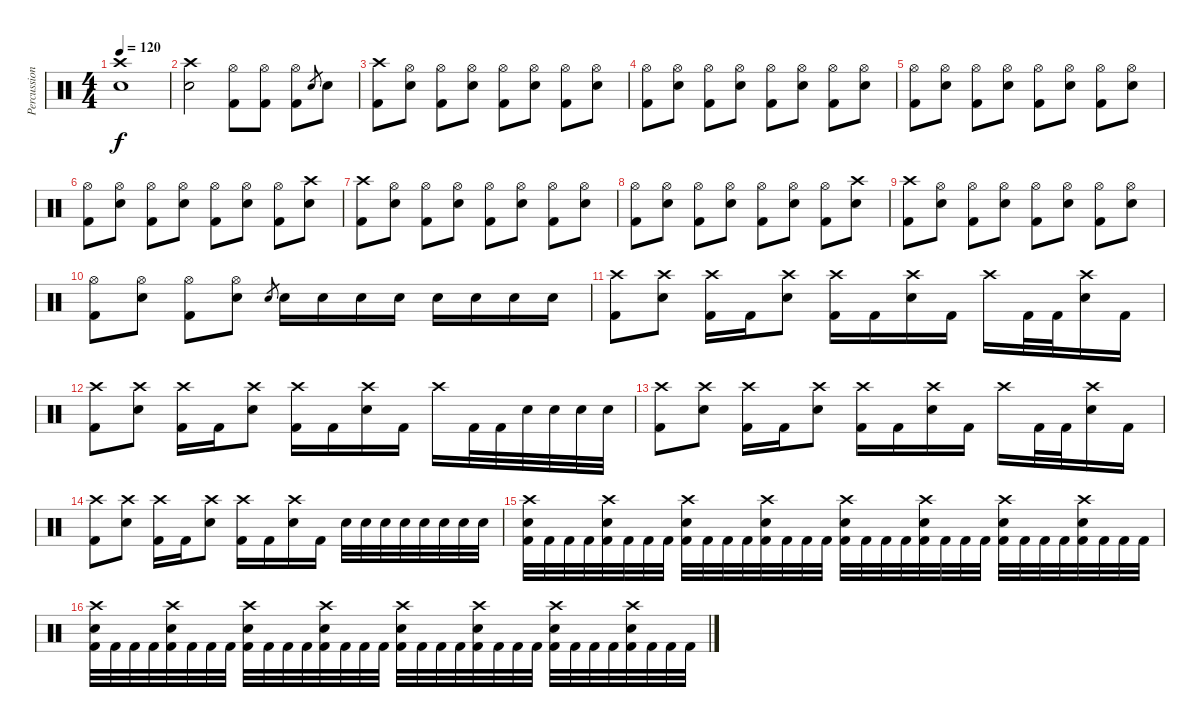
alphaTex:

\track ("Percussions" "Percussion") {instrument percussion}
\staff {score}
\articulation defaults
\ts (4 4)
\tempo 120
\clef neutral
\ks c
("Crash high (hit)" "Snare (hit) 2").1{dy f} |
("Crash high (hit)" "Snare (hit) 2").2 ("Hi-Hat (open)" "Kick (hit) 2").8 ("Hi-Hat (open)" "Kick (hit) 2").8 ("Hi-Hat (open)" "Kick (hit) 2").8 "Snare (hit) 2".8{gr} "Snare (hit) 2".8 |
("Crash high (hit)" "Kick (hit) 2").8 ("Hi-Hat (open)" "Snare (hit) 2").8 ("Hi-Hat (open)" "Kick (hit) 2").8 ("Hi-Hat (open)" "Snare (hit) 2").8 ("Hi-Hat (open)" "Kick (hit) 2").8 ("Hi-Hat (open)" "Snare (hit) 2").8 ("Hi-Hat (open)" "Kick (hit) 2").8 ("Hi-Hat (open)" "Snare (hit) 2").8 |
("Hi-Hat (open)" "Kick (hit) 2").8 ("Hi-Hat (open)" "Snare (hit) 2").8 ("Hi-Hat (open)" "Kick (hit) 2").8 ("Hi-Hat (open)" "Snare (hit) 2").8 ("Hi-Hat (open)" "Kick (hit) 2").8 ("Hi-Hat (open)" "Snare (hit) 2").8 ("Hi-Hat (open)" "Kick (hit) 2").8 ("Hi-Hat (open)" "Snare (hit) 2").8 |
("Hi-Hat (open)" "Kick (hit) 2").8 ("Hi-Hat (open)" "Snare (hit) 2").8 ("Hi-Hat (open)" "Kick (hit) 2").8 ("Hi-Hat (open)" "Snare (hit) 2").8 ("Hi-Hat (open)" "Kick (hit) 2").8 ("Hi-Hat (open)" "Snare (hit) 2").8 ("Hi-Hat (open)" "Kick (hit) 2").8 ("Hi-Hat (open)" "Snare (hit) 2").8 |
("Hi-Hat (open)" "Kick (hit) 2").8 ("Hi-Hat (open)" "Snare (hit) 2").8 ("Hi-Hat (open)" "Kick (hit) 2").8 ("Hi-Hat (open)" "Snare (hit) 2").8 ("Hi-Hat (open)" "Kick (hit) 2").8 ("Hi-Hat (open)" "Snare (hit) 2").8 ("Hi-Hat (open)" "Kick (hit) 2").8 ("Crash high (hit)" "Snare (hit) 2").8 |
("Crash high (hit)" "Kick (hit) 2").8 ("Hi-Hat (open)" "Snare (hit) 2").8 ("Hi-Hat (open)" "Kick (hit) 2").8 ("Hi-Hat (open)" "Snare (hit) 2").8 ("Hi-Hat (open)" "Kick (hit) 2").8 ("Hi-Hat (open)" "Snare (hit) 2").8 ("Hi-Hat (open)" "Kick (hit) 2").8 ("Hi-Hat (open)" "Snare (hit) 2").8 |
("Hi-Hat (open)" "Kick (hit) 2").8 ("Hi-Hat (open)" "Snare (hit) 2").8 ("Hi-Hat (open)" "Kick (hit) 2").8 ("Hi-Hat (open)" "Snare (hit) 2").8 ("Hi-Hat (open)" "Kick (hit) 2").8 ("Hi-Hat (open)" "Snare (hit) 2").8 ("Hi-Hat (open)" "Kick (hit) 2").8 ("Crash high (hit)" "Snare (hit) 2").8 |
("Crash high (hit)" "Kick (hit) 2").8 ("Hi-Hat (open)" "Snare (hit) 2").8 ("Hi-Hat (open)" "Kick (hit) 2").8 ("Hi-Hat (open)" "Snare (hit) 2").8 ("Hi-Hat (open)" "Kick (hit) 2").8 ("Hi-Hat (open)" "Snare (hit) 2").8 ("Hi-Hat (open)" "Kick (hit) 2").8 ("Hi-Hat (open)" "Snare (hit) 2").8 |
("Hi-Hat (open)" "Kick (hit) 2").8 ("Hi-Hat (open)" "Snare (hit) 2").8 ("Hi-Hat (open)" "Kick (hit) 2").8 ("Hi-Hat (open)" "Snare (hit) 2").8 "Snare (hit) 2".8{gr} "Snare (hit) 2".16 "Snare (hit) 2".16 "Snare (hit) 2".16 "Snare (hit) 2".16 "Snare (hit) 2".16 "Snare (hit) 2".16 "Snare (hit) 2".16 "Snare (hit) 2".16 |
("Crash high (hit)" "Kick (hit) 2").8 ("Crash high (hit)" "Snare (hit) 2").8 ("Crash high (hit)" "Kick (hit) 2").16 "Kick (hit) 2".16 ("Crash high (hit)" "Snare (hit) 2").8 ("Crash high (hit)" "Kick (hit) 2").16 "Kick (hit) 2".16 ("Crash high (hit)" "Snare (hit) 2").16 "Kick (hit) 2".16 "Crash high (hit)".16 "Kick (hit) 2".32 "Kick (hit) 2".32 ("Crash high (hit)" "Snare (hit) 2").16 "Kick (hit) 2".16 |
("Crash high (hit)" "Kick (hit) 2").8 ("Crash high (hit)" "Snare (hit) 2").8 ("Crash high (hit)" "Kick (hit) 2").16 "Kick (hit) 2".16 ("Crash high (hit)" "Snare (hit) 2").8 ("Crash high (hit)" "Kick (hit) 2").16 "Kick (hit) 2".16 ("Crash high (hit)" "Snare (hit) 2").16 "Kick (hit) 2".16 "Crash high (hit)".16 "Kick (hit) 2".32 "Kick (hit) 2".32 "Snare (hit) 2".32 "Snare (hit) 2".32 "Snare (hit) 2".32 "Snare (hit) 2".32 |
("Crash high (hit)" "Kick (hit) 2").8 ("Crash high (hit)" "Snare (hit) 2").8 ("Crash high (hit)" "Kick (hit) 2").16 "Kick (hit) 2".16 ("Crash high (hit)" "Snare (hit) 2").8 ("Crash high (hit)" "Kick (hit) 2").16 "Kick (hit) 2".16 ("Crash high (hit)" "Snare (hit) 2").16 "Kick (hit) 2".16 "Crash high (hit)".16 "Kick (hit) 2".32 "Kick (hit) 2".32 ("Crash high (hit)" "Snare (hit) 2").16 "Kick (hit) 2".16 |
("Crash high (hit)" "Kick (hit) 2").8 ("Crash high (hit)" "Snare (hit) 2").8 ("Crash high (hit)" "Kick (hit) 2").16 "Kick (hit) 2".16 ("Crash high (hit)" "Snare (hit) 2").8 ("Crash high (hit)" "Kick (hit) 2").16 "Kick (hit) 2".16 ("Crash high (hit)" "Snare (hit) 2").16 "Kick (hit) 2".16 "Snare (hit) 2".32 "Snare (hit) 2".32 "Snare (hit) 2".32 "Snare (hit) 2".32 "Snare (hit) 2".32 "Snare (hit) 2".32 "Snare (hit) 2".32 "Snare (hit) 2".32 |
("Crash high (hit)" "Snare (hit) 2" "Kick (hit) 2").32 "Kick (hit) 2".32 "Kick (hit) 2".32 "Kick (hit) 2".32 ("Crash high (hit)" "Snare (hit) 2" "Kick (hit) 2").32 "Kick (hit) 2".32 "Kick (hit) 2".32 "Kick (hit) 2".32 ("Crash high (hit)" "Snare (hit) 2" "Kick (hit) 2").32 "Kick (hit) 2".32 "Kick (hit) 2".32 "Kick (hit) 2".32 ("Crash high (hit)" "Snare (hit) 2" "Kick (hit) 2").32 "Kick (hit) 2".32 "Kick (hit) 2".32 "Kick (hit) 2".32 ("Crash high (hit)" "Snare (hit) 2" "Kick (hit) 2").32 "Kick (hit) 2".32 "Kick (hit) 2".32 "Kick (hit) 2".32 ("Crash high (hit)" "Snare (hit) 2" "Kick (hit) 2").32 "Kick (hit) 2".32 "Kick (hit) 2".32 "Kick (hit) 2".32 ("Crash high (hit)" "Snare (hit) 2" "Kick (hit) 2").32 "Kick (hit) 2".32 "Kick (hit) 2".32 "Kick (hit) 2".32 ("Crash high (hit)" "Snare (hit) 2" "Kick (hit) 2").32 "Kick (hit) 2".32 "Kick (hit) 2".32 "Kick (hit) 2".32 |
("Crash high (hit)" "Snare (hit) 2" "Kick (hit) 2").32 "Kick (hit) 2".32 "Kick (hit) 2".32 "Kick (hit) 2".32 ("Crash high (hit)" "Snare (hit) 2" "Kick (hit) 2").32 "Kick (hit) 2".32 "Kick (hit) 2".32 "Kick (hit) 2".32 ("Crash high (hit)" "Snare (hit) 2" "Kick (hit) 2").32 "Kick (hit) 2".32 "Kick (hit) 2".32 "Kick (hit) 2".32 ("Crash high (hit)" "Snare (hit) 2" "Kick (hit) 2").32 "Kick (hit) 2".32 "Kick (hit) 2".32 "Kick (hit) 2".32 ("Crash high (hit)" "Snare (hit) 2" "Kick (hit) 2").32 "Kick (hit) 2".32 "Kick (hit) 2".32 "Kick (hit) 2".32 ("Crash high (hit)" "Snare (hit) 2" "Kick (hit) 2").32 "Kick (hit) 2".32 "Kick (hit) 2".32 "Kick (hit) 2".32 ("Crash high (hit)" "Snare (hit) 2" "Kick (hit) 2").32 "Kick (hit) 2".32 "Kick (hit) 2".32 "Kick (hit) 2".32 ("Crash high (hit)" "Snare (hit) 2" "Kick (hit) 2").32 "Kick (hit) 2".32 "Kick (hit) 2".32 "Kick (hit) 2".32
